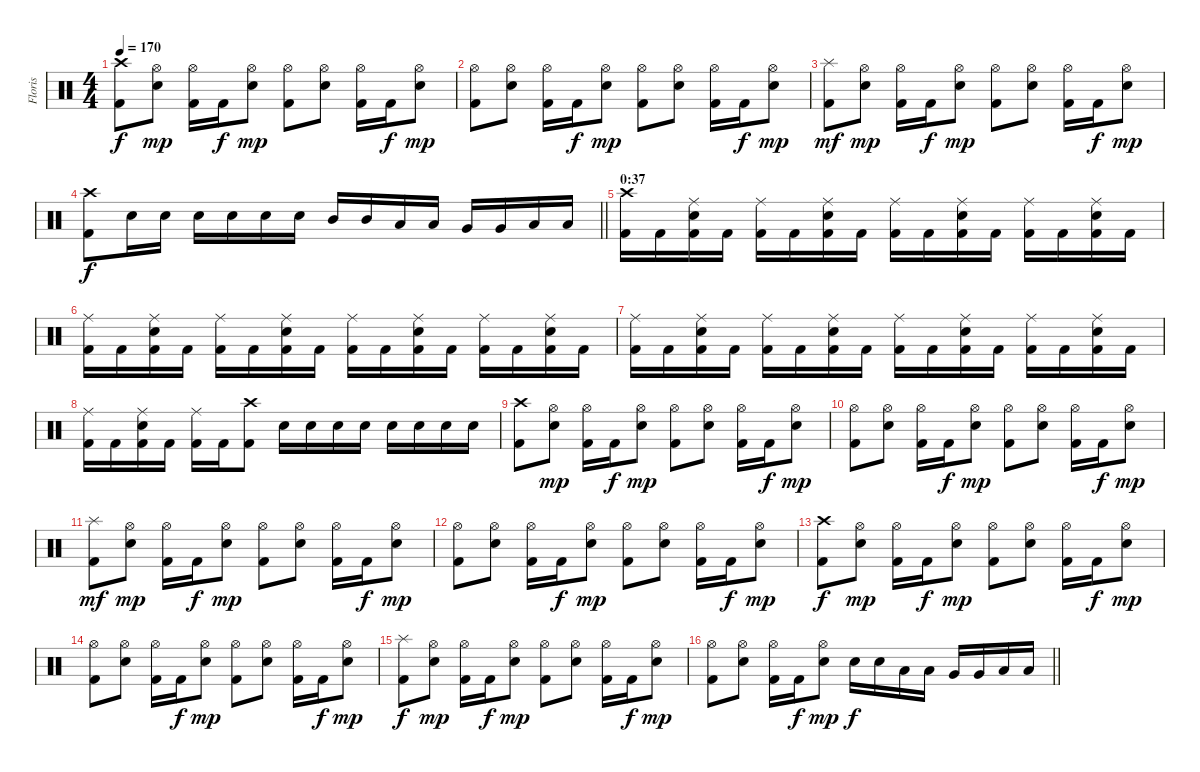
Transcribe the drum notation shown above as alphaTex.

\track ("Floris" "Floris") {instrument percussion}
\staff {score}
\articulation defaults
\ts (4 4)
\tempo 170
\clef neutral
\ks c
("Crash high (hit)" "Kick (hit) 2").8{dy f} ("Hi-Hat (open)" "Electric Snare (hit)").8{dy mp} ("Hi-Hat (open)" "Kick (hit) 2").16 "Kick (hit) 2".16{dy f} ("Hi-Hat (open)" "Electric Snare (hit)").8{dy mp} ("Hi-Hat (open)" "Kick (hit) 2").8 ("Hi-Hat (open)" "Electric Snare (hit)").8 ("Hi-Hat (open)" "Kick (hit) 2").16 "Kick (hit) 2".16{dy f} ("Hi-Hat (open)" "Electric Snare (hit)").8{dy mp} |
("Hi-Hat (open)" "Kick (hit) 2").8 ("Hi-Hat (open)" "Electric Snare (hit)").8 ("Hi-Hat (open)" "Kick (hit) 2").16 "Kick (hit) 2".16{dy f} ("Hi-Hat (open)" "Electric Snare (hit)").8{dy mp} ("Hi-Hat (open)" "Kick (hit) 2").8 ("Hi-Hat (open)" "Electric Snare (hit)").8 ("Hi-Hat (open)" "Kick (hit) 2").16 "Kick (hit) 2".16{dy f} ("Hi-Hat (open)" "Electric Snare (hit)").8{dy mp} |
("Splash (hit)" "Kick (hit) 2").8{dy mf} ("Hi-Hat (open)" "Electric Snare (hit)").8{dy mp} ("Hi-Hat (open)" "Kick (hit) 2").16 "Kick (hit) 2".16{dy f} ("Hi-Hat (open)" "Electric Snare (hit)").8{dy mp} ("Hi-Hat (open)" "Kick (hit) 2").8 ("Hi-Hat (open)" "Electric Snare (hit)").8 ("Hi-Hat (open)" "Kick (hit) 2").16 "Kick (hit) 2".16{dy f} ("Hi-Hat (open)" "Electric Snare (hit)").8{dy mp} |
\barLineRight lightlight
("Crash high (hit)" "Kick (hit) 2").8{dy f} "Electric Snare (hit)".16 "Electric Snare (hit)".16 "Electric Snare (hit)".16 "Electric Snare (hit)".16 "Electric Snare (hit)".16 "Electric Snare (hit)".16 "Mid Tom (hit)".16 "Mid Tom (hit)".16 "Low Tom (hit)".16 "Low Tom (hit)".16 "Very Low Tom (hit)".16 "Very Low Tom (hit)".16 "Low Floor Tom (hit)".16 "Low Floor Tom (hit)".16 |
\section ("" "0:37")
("Crash high (hit)" "Kick (hit) 2").16 "Kick (hit) 2".16 ("Ride (middle)" "Electric Snare (hit)" "Kick (hit) 2").16 "Kick (hit) 2".16 ("Ride (middle)" "Kick (hit) 2").16 "Kick (hit) 2".16 ("Ride (middle)" "Electric Snare (hit)" "Kick (hit) 2").16 "Kick (hit) 2".16 ("Ride (middle)" "Kick (hit) 2").16 "Kick (hit) 2".16 ("Ride (middle)" "Electric Snare (hit)" "Kick (hit) 2").16 "Kick (hit) 2".16 ("Ride (middle)" "Kick (hit) 2").16 "Kick (hit) 2".16 ("Ride (middle)" "Electric Snare (hit)" "Kick (hit) 2").16 "Kick (hit) 2".16 |
("Ride (middle)" "Kick (hit) 2").16 "Kick (hit) 2".16 ("Ride (middle)" "Electric Snare (hit)" "Kick (hit) 2").16 "Kick (hit) 2".16 ("Ride (middle)" "Kick (hit) 2").16 "Kick (hit) 2".16 ("Ride (middle)" "Electric Snare (hit)" "Kick (hit) 2").16 "Kick (hit) 2".16 ("Ride (middle)" "Kick (hit) 2").16 "Kick (hit) 2".16 ("Ride (middle)" "Electric Snare (hit)" "Kick (hit) 2").16 "Kick (hit) 2".16 ("Ride (middle)" "Kick (hit) 2").16 "Kick (hit) 2".16 ("Ride (middle)" "Electric Snare (hit)" "Kick (hit) 2").16 "Kick (hit) 2".16 |
("Ride (middle)" "Kick (hit) 2").16 "Kick (hit) 2".16 ("Ride (middle)" "Electric Snare (hit)" "Kick (hit) 2").16 "Kick (hit) 2".16 ("Ride (middle)" "Kick (hit) 2").16 "Kick (hit) 2".16 ("Ride (middle)" "Electric Snare (hit)" "Kick (hit) 2").16 "Kick (hit) 2".16 ("Ride (middle)" "Kick (hit) 2").16 "Kick (hit) 2".16 ("Ride (middle)" "Electric Snare (hit)" "Kick (hit) 2").16 "Kick (hit) 2".16 ("Ride (middle)" "Kick (hit) 2").16 "Kick (hit) 2".16 ("Ride (middle)" "Electric Snare (hit)" "Kick (hit) 2").16 "Kick (hit) 2".16 |
("Ride (middle)" "Kick (hit) 2").16 "Kick (hit) 2".16 ("Ride (middle)" "Electric Snare (hit)" "Kick (hit) 2").16 "Kick (hit) 2".16 ("Ride (middle)" "Kick (hit) 2").16 "Kick (hit) 2".16 ("Crash high (hit)" "Kick (hit) 2").8 "Electric Snare (hit)".16 "Electric Snare (hit)".16 "Electric Snare (hit)".16 "Electric Snare (hit)".16 "Electric Snare (hit)".16 "Electric Snare (hit)".16 "Electric Snare (hit)".16 "Electric Snare (hit)".16 |
("Crash high (hit)" "Kick (hit) 2").8 ("Hi-Hat (open)" "Electric Snare (hit)").8{dy mp} ("Hi-Hat (open)" "Kick (hit) 2").16 "Kick (hit) 2".16{dy f} ("Hi-Hat (open)" "Electric Snare (hit)").8{dy mp} ("Hi-Hat (open)" "Kick (hit) 2").8 ("Hi-Hat (open)" "Electric Snare (hit)").8 ("Hi-Hat (open)" "Kick (hit) 2").16 "Kick (hit) 2".16{dy f} ("Hi-Hat (open)" "Electric Snare (hit)").8{dy mp} |
("Hi-Hat (open)" "Kick (hit) 2").8 ("Hi-Hat (open)" "Electric Snare (hit)").8 ("Hi-Hat (open)" "Kick (hit) 2").16 "Kick (hit) 2".16{dy f} ("Hi-Hat (open)" "Electric Snare (hit)").8{dy mp} ("Hi-Hat (open)" "Kick (hit) 2").8 ("Hi-Hat (open)" "Electric Snare (hit)").8 ("Hi-Hat (open)" "Kick (hit) 2").16 "Kick (hit) 2".16{dy f} ("Hi-Hat (open)" "Electric Snare (hit)").8{dy mp} |
("Splash (hit)" "Kick (hit) 2").8{dy mf} ("Hi-Hat (open)" "Electric Snare (hit)").8{dy mp} ("Hi-Hat (open)" "Kick (hit) 2").16 "Kick (hit) 2".16{dy f} ("Hi-Hat (open)" "Electric Snare (hit)").8{dy mp} ("Hi-Hat (open)" "Kick (hit) 2").8 ("Hi-Hat (open)" "Electric Snare (hit)").8 ("Hi-Hat (open)" "Kick (hit) 2").16 "Kick (hit) 2".16{dy f} ("Hi-Hat (open)" "Electric Snare (hit)").8{dy mp} |
("Hi-Hat (open)" "Kick (hit) 2").8 ("Hi-Hat (open)" "Electric Snare (hit)").8 ("Hi-Hat (open)" "Kick (hit) 2").16 "Kick (hit) 2".16{dy f} ("Hi-Hat (open)" "Electric Snare (hit)").8{dy mp} ("Hi-Hat (open)" "Kick (hit) 2").8 ("Hi-Hat (open)" "Electric Snare (hit)").8 ("Hi-Hat (open)" "Kick (hit) 2").16 "Kick (hit) 2".16{dy f} ("Hi-Hat (open)" "Electric Snare (hit)").8{dy mp} |
("Crash high (hit)" "Kick (hit) 2").8{dy f} ("Hi-Hat (open)" "Electric Snare (hit)").8{dy mp} ("Hi-Hat (open)" "Kick (hit) 2").16 "Kick (hit) 2".16{dy f} ("Hi-Hat (open)" "Electric Snare (hit)").8{dy mp} ("Hi-Hat (open)" "Kick (hit) 2").8 ("Hi-Hat (open)" "Electric Snare (hit)").8 ("Hi-Hat (open)" "Kick (hit) 2").16 "Kick (hit) 2".16{dy f} ("Hi-Hat (open)" "Electric Snare (hit)").8{dy mp} |
("Hi-Hat (open)" "Kick (hit) 2").8 ("Hi-Hat (open)" "Electric Snare (hit)").8 ("Hi-Hat (open)" "Kick (hit) 2").16 "Kick (hit) 2".16{dy f} ("Hi-Hat (open)" "Electric Snare (hit)").8{dy mp} ("Hi-Hat (open)" "Kick (hit) 2").8 ("Hi-Hat (open)" "Electric Snare (hit)").8 ("Hi-Hat (open)" "Kick (hit) 2").16 "Kick (hit) 2".16{dy f} ("Hi-Hat (open)" "Electric Snare (hit)").8{dy mp} |
("Splash (hit)" "Kick (hit) 2").8{dy f} ("Hi-Hat (open)" "Electric Snare (hit)").8{dy mp} ("Hi-Hat (open)" "Kick (hit) 2").16 "Kick (hit) 2".16{dy f} ("Hi-Hat (open)" "Electric Snare (hit)").8{dy mp} ("Hi-Hat (open)" "Kick (hit) 2").8 ("Hi-Hat (open)" "Electric Snare (hit)").8 ("Hi-Hat (open)" "Kick (hit) 2").16 "Kick (hit) 2".16{dy f} ("Hi-Hat (open)" "Electric Snare (hit)").8{dy mp} |
\barLineRight lightlight
("Hi-Hat (open)" "Kick (hit) 2").8 ("Hi-Hat (open)" "Electric Snare (hit)").8 ("Hi-Hat (open)" "Kick (hit) 2").16 "Kick (hit) 2".16{dy f} ("Hi-Hat (open)" "Electric Snare (hit)").8{dy mp} "Electric Snare (hit)".16{dy f} "Electric Snare (hit)".16 "Low Tom (hit)".16 "Low Tom (hit)".16 "Very Low Tom (hit)".16 "Very Low Tom (hit)".16 "Low Floor Tom (hit)".16 "Low Floor Tom (hit)".16
